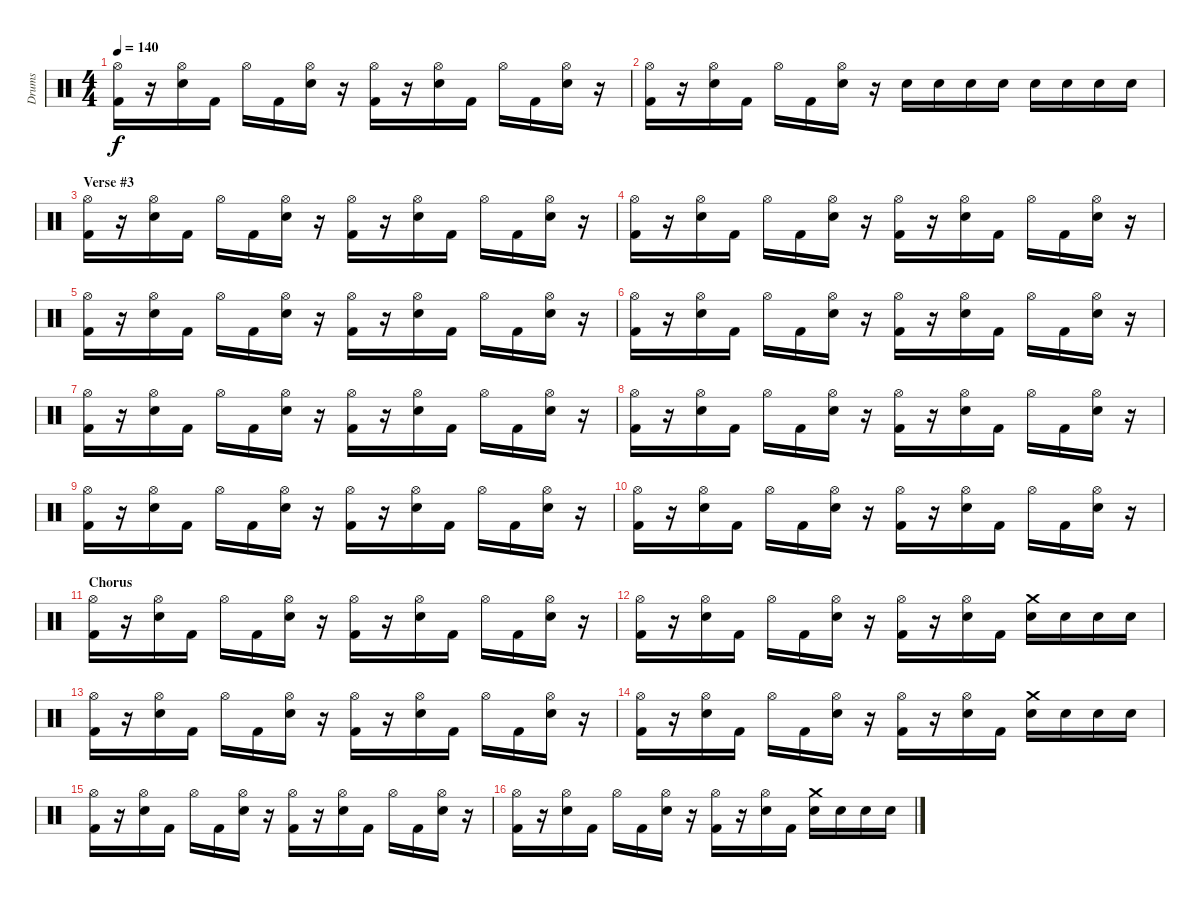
\track ("Drums" "Drums") {instrument percussion}
\staff {score}
\articulation defaults
\ts (4 4)
\tempo 140
\clef neutral
\ks c
("Hi-Hat (open)" "Kick (hit) 2").16{dy f} r.16 ("Hi-Hat (open)" "Electric Snare (hit)").16 "Kick (hit) 2".16 "Hi-Hat (open)".16 "Kick (hit) 2".16 ("Hi-Hat (open)" "Electric Snare (hit)").16 r.16 ("Hi-Hat (open)" "Kick (hit) 2").16 r.16 ("Hi-Hat (open)" "Electric Snare (hit)").16 "Kick (hit) 2".16 "Hi-Hat (open)".16 "Kick (hit) 2".16 ("Hi-Hat (open)" "Electric Snare (hit)").16 r.16 |
("Hi-Hat (open)" "Kick (hit) 2").16 r.16 ("Hi-Hat (open)" "Electric Snare (hit)").16 "Kick (hit) 2".16 "Hi-Hat (open)".16 "Kick (hit) 2".16 ("Hi-Hat (open)" "Electric Snare (hit)").16 r.16 "Electric Snare (hit)".16 "Electric Snare (hit)".16 "Electric Snare (hit)".16 "Electric Snare (hit)".16 "Electric Snare (hit)".16 "Electric Snare (hit)".16 "Electric Snare (hit)".16 "Electric Snare (hit)".16 |
\section ("" "Verse #3")
("Hi-Hat (open)" "Kick (hit) 2").16 r.16 ("Hi-Hat (open)" "Electric Snare (hit)").16 "Kick (hit) 2".16 "Hi-Hat (open)".16 "Kick (hit) 2".16 ("Hi-Hat (open)" "Electric Snare (hit)").16 r.16 ("Hi-Hat (open)" "Kick (hit) 2").16 r.16 ("Hi-Hat (open)" "Electric Snare (hit)").16 "Kick (hit) 2".16 "Hi-Hat (open)".16 "Kick (hit) 2".16 ("Hi-Hat (open)" "Electric Snare (hit)").16 r.16 |
("Hi-Hat (open)" "Kick (hit) 2").16 r.16 ("Hi-Hat (open)" "Electric Snare (hit)").16 "Kick (hit) 2".16 "Hi-Hat (open)".16 "Kick (hit) 2".16 ("Hi-Hat (open)" "Electric Snare (hit)").16 r.16 ("Hi-Hat (open)" "Kick (hit) 2").16 r.16 ("Hi-Hat (open)" "Electric Snare (hit)").16 "Kick (hit) 2".16 "Hi-Hat (open)".16 "Kick (hit) 2".16 ("Hi-Hat (open)" "Electric Snare (hit)").16 r.16 |
("Hi-Hat (open)" "Kick (hit) 2").16 r.16 ("Hi-Hat (open)" "Electric Snare (hit)").16 "Kick (hit) 2".16 "Hi-Hat (open)".16 "Kick (hit) 2".16 ("Hi-Hat (open)" "Electric Snare (hit)").16 r.16 ("Hi-Hat (open)" "Kick (hit) 2").16 r.16 ("Hi-Hat (open)" "Electric Snare (hit)").16 "Kick (hit) 2".16 "Hi-Hat (open)".16 "Kick (hit) 2".16 ("Hi-Hat (open)" "Electric Snare (hit)").16 r.16 |
("Hi-Hat (open)" "Kick (hit) 2").16 r.16 ("Hi-Hat (open)" "Electric Snare (hit)").16 "Kick (hit) 2".16 "Hi-Hat (open)".16 "Kick (hit) 2".16 ("Hi-Hat (open)" "Electric Snare (hit)").16 r.16 ("Hi-Hat (open)" "Kick (hit) 2").16 r.16 ("Hi-Hat (open)" "Electric Snare (hit)").16 "Kick (hit) 2".16 "Hi-Hat (open)".16 "Kick (hit) 2".16 ("Hi-Hat (open)" "Electric Snare (hit)").16 r.16 |
("Hi-Hat (open)" "Kick (hit) 2").16 r.16 ("Hi-Hat (open)" "Electric Snare (hit)").16 "Kick (hit) 2".16 "Hi-Hat (open)".16 "Kick (hit) 2".16 ("Hi-Hat (open)" "Electric Snare (hit)").16 r.16 ("Hi-Hat (open)" "Kick (hit) 2").16 r.16 ("Hi-Hat (open)" "Electric Snare (hit)").16 "Kick (hit) 2".16 "Hi-Hat (open)".16 "Kick (hit) 2".16 ("Hi-Hat (open)" "Electric Snare (hit)").16 r.16 |
("Hi-Hat (open)" "Kick (hit) 2").16 r.16 ("Hi-Hat (open)" "Electric Snare (hit)").16 "Kick (hit) 2".16 "Hi-Hat (open)".16 "Kick (hit) 2".16 ("Hi-Hat (open)" "Electric Snare (hit)").16 r.16 ("Hi-Hat (open)" "Kick (hit) 2").16 r.16 ("Hi-Hat (open)" "Electric Snare (hit)").16 "Kick (hit) 2".16 "Hi-Hat (open)".16 "Kick (hit) 2".16 ("Hi-Hat (open)" "Electric Snare (hit)").16 r.16 |
("Hi-Hat (open)" "Kick (hit) 2").16 r.16 ("Hi-Hat (open)" "Electric Snare (hit)").16 "Kick (hit) 2".16 "Hi-Hat (open)".16 "Kick (hit) 2".16 ("Hi-Hat (open)" "Electric Snare (hit)").16 r.16 ("Hi-Hat (open)" "Kick (hit) 2").16 r.16 ("Hi-Hat (open)" "Electric Snare (hit)").16 "Kick (hit) 2".16 "Hi-Hat (open)".16 "Kick (hit) 2".16 ("Hi-Hat (open)" "Electric Snare (hit)").16 r.16 |
("Hi-Hat (open)" "Kick (hit) 2").16 r.16 ("Hi-Hat (open)" "Electric Snare (hit)").16 "Kick (hit) 2".16 "Hi-Hat (open)".16 "Kick (hit) 2".16 ("Hi-Hat (open)" "Electric Snare (hit)").16 r.16 ("Hi-Hat (open)" "Kick (hit) 2").16 r.16 ("Hi-Hat (open)" "Electric Snare (hit)").16 "Kick (hit) 2".16 "Hi-Hat (open)".16 "Kick (hit) 2".16 ("Hi-Hat (open)" "Electric Snare (hit)").16 r.16 |
\section ("" "Chorus")
("Hi-Hat (open)" "Kick (hit) 2").16 r.16 ("Hi-Hat (open)" "Electric Snare (hit)").16 "Kick (hit) 2".16 "Hi-Hat (open)".16 "Kick (hit) 2".16 ("Hi-Hat (open)" "Electric Snare (hit)").16 r.16 ("Hi-Hat (open)" "Kick (hit) 2").16 r.16 ("Hi-Hat (open)" "Electric Snare (hit)").16 "Kick (hit) 2".16 "Hi-Hat (open)".16 "Kick (hit) 2".16 ("Hi-Hat (open)" "Electric Snare (hit)").16 r.16 |
("Hi-Hat (open)" "Kick (hit) 2").16 r.16 ("Hi-Hat (open)" "Electric Snare (hit)").16 "Kick (hit) 2".16 "Hi-Hat (open)".16 "Kick (hit) 2".16 ("Hi-Hat (open)" "Electric Snare (hit)").16 r.16 ("Hi-Hat (open)" "Kick (hit) 2").16 r.16 ("Hi-Hat (open)" "Electric Snare (hit)").16 "Kick (hit) 2".16 ("Crash medium (hit)" "Electric Snare (hit)").16 "Electric Snare (hit)".16 "Electric Snare (hit)".16 "Electric Snare (hit)".16 |
("Hi-Hat (open)" "Kick (hit) 2").16 r.16 ("Hi-Hat (open)" "Electric Snare (hit)").16 "Kick (hit) 2".16 "Hi-Hat (open)".16 "Kick (hit) 2".16 ("Hi-Hat (open)" "Electric Snare (hit)").16 r.16 ("Hi-Hat (open)" "Kick (hit) 2").16 r.16 ("Hi-Hat (open)" "Electric Snare (hit)").16 "Kick (hit) 2".16 "Hi-Hat (open)".16 "Kick (hit) 2".16 ("Hi-Hat (open)" "Electric Snare (hit)").16 r.16 |
("Hi-Hat (open)" "Kick (hit) 2").16 r.16 ("Hi-Hat (open)" "Electric Snare (hit)").16 "Kick (hit) 2".16 "Hi-Hat (open)".16 "Kick (hit) 2".16 ("Hi-Hat (open)" "Electric Snare (hit)").16 r.16 ("Hi-Hat (open)" "Kick (hit) 2").16 r.16 ("Hi-Hat (open)" "Electric Snare (hit)").16 "Kick (hit) 2".16 ("Crash medium (hit)" "Electric Snare (hit)").16 "Electric Snare (hit)".16 "Electric Snare (hit)".16 "Electric Snare (hit)".16 |
("Hi-Hat (open)" "Kick (hit) 2").16 r.16 ("Hi-Hat (open)" "Electric Snare (hit)").16 "Kick (hit) 2".16 "Hi-Hat (open)".16 "Kick (hit) 2".16 ("Hi-Hat (open)" "Electric Snare (hit)").16 r.16 ("Hi-Hat (open)" "Kick (hit) 2").16 r.16 ("Hi-Hat (open)" "Electric Snare (hit)").16 "Kick (hit) 2".16 "Hi-Hat (open)".16 "Kick (hit) 2".16 ("Hi-Hat (open)" "Electric Snare (hit)").16 r.16 |
("Hi-Hat (open)" "Kick (hit) 2").16 r.16 ("Hi-Hat (open)" "Electric Snare (hit)").16 "Kick (hit) 2".16 "Hi-Hat (open)".16 "Kick (hit) 2".16 ("Hi-Hat (open)" "Electric Snare (hit)").16 r.16 ("Hi-Hat (open)" "Kick (hit) 2").16 r.16 ("Hi-Hat (open)" "Electric Snare (hit)").16 "Kick (hit) 2".16 ("Crash medium (hit)" "Electric Snare (hit)").16 "Electric Snare (hit)".16 "Electric Snare (hit)".16 "Electric Snare (hit)".16
